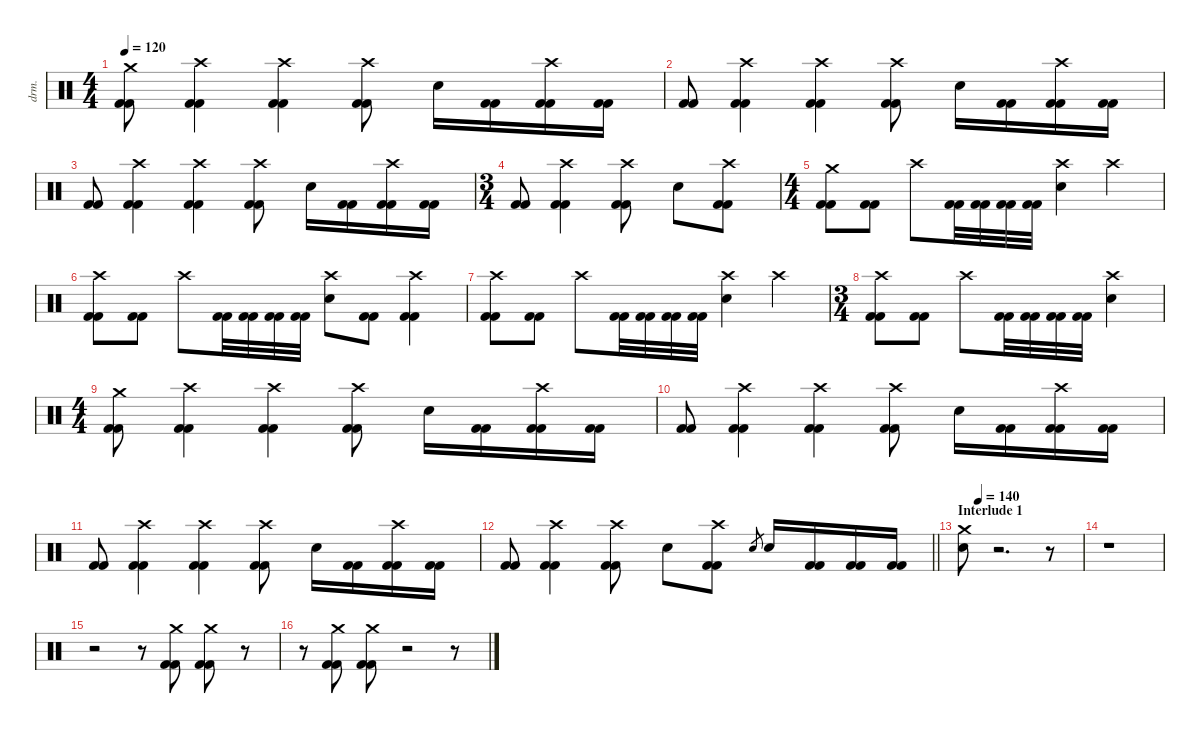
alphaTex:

\defaultSystemsLayout 4
\hideDynamics
\bracketExtendMode nobrackets
\otherSystemsTrackNameOrientation horizontal
\track ("Chris Adler" "drm.") {instrument percussion}
\staff {score}
\articulation defaults
\ts (4 4)
\beaming (8 2 2 2 2)
\tempo 120
\clef neutral
\ks c
("Crash medium (hit)" "Kick (hit) 2" "Kick (hit) 2").8{dy f} ("Crash high (hit)" "Kick (hit) 2" "Kick (hit) 2").4 ("Crash high (hit)" "Kick (hit) 2" "Kick (hit) 2").4 ("Crash high (hit)" "Kick (hit) 2" "Kick (hit) 2").8 "Snare (hit) 2".16 ("Kick (hit) 2" "Kick (hit) 2").16 ("Crash high (hit)" "Kick (hit) 2" "Kick (hit) 2").16 ("Kick (hit) 2" "Kick (hit) 2").16 |
("Kick (hit) 2" "Kick (hit) 2").8 ("Crash high (hit)" "Kick (hit) 2" "Kick (hit) 2").4 ("Crash high (hit)" "Kick (hit) 2" "Kick (hit) 2").4 ("Crash high (hit)" "Kick (hit) 2" "Kick (hit) 2").8 "Snare (hit) 2".16 ("Kick (hit) 2" "Kick (hit) 2").16 ("Crash high (hit)" "Kick (hit) 2" "Kick (hit) 2").16 ("Kick (hit) 2" "Kick (hit) 2").16 |
("Kick (hit) 2" "Kick (hit) 2").8 ("Crash high (hit)" "Kick (hit) 2" "Kick (hit) 2").4 ("Crash high (hit)" "Kick (hit) 2" "Kick (hit) 2").4 ("Crash high (hit)" "Kick (hit) 2" "Kick (hit) 2").8 "Snare (hit) 2".16 ("Kick (hit) 2" "Kick (hit) 2").16 ("Crash high (hit)" "Kick (hit) 2" "Kick (hit) 2").16 ("Kick (hit) 2" "Kick (hit) 2").16 |
\ts (3 4)
\beaming (8 2 2 2)
("Kick (hit) 2" "Kick (hit) 2").8 ("Crash high (hit)" "Kick (hit) 2" "Kick (hit) 2").4 ("Crash high (hit)" "Kick (hit) 2" "Kick (hit) 2").8 "Snare (hit) 2".8 ("Crash high (hit)" "Kick (hit) 2" "Kick (hit) 2").8 |
\ts (4 4)
\beaming (8 2 2 2 2)
("Crash medium (hit)" "Kick (hit) 2" "Kick (hit) 2").8 ("Kick (hit) 2" "Kick (hit) 2").8 "Crash high (hit)".8 ("Kick (hit) 2" "Kick (hit) 2").32 ("Kick (hit) 2" "Kick (hit) 2").32 ("Kick (hit) 2" "Kick (hit) 2").32 ("Kick (hit) 2" "Kick (hit) 2").32 ("Crash high (hit)" "Snare (hit) 2").4 "Crash high (hit)".4 |
("Crash high (hit)" "Kick (hit) 2" "Kick (hit) 2").8 ("Kick (hit) 2" "Kick (hit) 2").8 "Crash high (hit)".8 ("Kick (hit) 2" "Kick (hit) 2").32 ("Kick (hit) 2" "Kick (hit) 2").32 ("Kick (hit) 2" "Kick (hit) 2").32 ("Kick (hit) 2" "Kick (hit) 2").32 ("Crash high (hit)" "Snare (hit) 2").8 ("Kick (hit) 2" "Kick (hit) 2").8 ("Crash high (hit)" "Kick (hit) 2" "Kick (hit) 2").4 |
("Crash high (hit)" "Kick (hit) 2" "Kick (hit) 2").8 ("Kick (hit) 2" "Kick (hit) 2").8 "Crash high (hit)".8 ("Kick (hit) 2" "Kick (hit) 2").32 ("Kick (hit) 2" "Kick (hit) 2").32 ("Kick (hit) 2" "Kick (hit) 2").32 ("Kick (hit) 2" "Kick (hit) 2").32 ("Crash high (hit)" "Snare (hit) 2").4 "Crash high (hit)".4 |
\ts (3 4)
\beaming (8 2 2 2)
("Crash high (hit)" "Kick (hit) 2" "Kick (hit) 2").8 ("Kick (hit) 2" "Kick (hit) 2").8 "Crash high (hit)".8 ("Kick (hit) 2" "Kick (hit) 2").32 ("Kick (hit) 2" "Kick (hit) 2").32 ("Kick (hit) 2" "Kick (hit) 2").32 ("Kick (hit) 2" "Kick (hit) 2").32 ("Crash high (hit)" "Snare (hit) 2").4 |
\ts (4 4)
\beaming (8 2 2 2 2)
("Crash medium (hit)" "Kick (hit) 2" "Kick (hit) 2").8 ("Crash high (hit)" "Kick (hit) 2" "Kick (hit) 2").4 ("Crash high (hit)" "Kick (hit) 2" "Kick (hit) 2").4 ("Crash high (hit)" "Kick (hit) 2" "Kick (hit) 2").8 "Snare (hit) 2".16 ("Kick (hit) 2" "Kick (hit) 2").16 ("Crash high (hit)" "Kick (hit) 2" "Kick (hit) 2").16 ("Kick (hit) 2" "Kick (hit) 2").16 |
("Kick (hit) 2" "Kick (hit) 2").8 ("Crash high (hit)" "Kick (hit) 2" "Kick (hit) 2").4 ("Crash high (hit)" "Kick (hit) 2" "Kick (hit) 2").4 ("Crash high (hit)" "Kick (hit) 2" "Kick (hit) 2").8 "Snare (hit) 2".16 ("Kick (hit) 2" "Kick (hit) 2").16 ("Crash high (hit)" "Kick (hit) 2" "Kick (hit) 2").16 ("Kick (hit) 2" "Kick (hit) 2").16 |
("Kick (hit) 2" "Kick (hit) 2").8 ("Crash high (hit)" "Kick (hit) 2" "Kick (hit) 2").4 ("Crash high (hit)" "Kick (hit) 2" "Kick (hit) 2").4 ("Crash high (hit)" "Kick (hit) 2" "Kick (hit) 2").8 "Snare (hit) 2".16 ("Kick (hit) 2" "Kick (hit) 2").16 ("Crash high (hit)" "Kick (hit) 2" "Kick (hit) 2").16 ("Kick (hit) 2" "Kick (hit) 2").16 |
\barLineRight lightlight
("Kick (hit) 2" "Kick (hit) 2").8 ("Crash high (hit)" "Kick (hit) 2" "Kick (hit) 2").4 ("Crash high (hit)" "Kick (hit) 2" "Kick (hit) 2").8 "Snare (hit) 2".8 ("Crash high (hit)" "Kick (hit) 2" "Kick (hit) 2").8 "Electric Snare (hit)".8{gr dy mf} "Snare (hit) 2".16{dy f} ("Kick (hit) 2" "Kick (hit) 2").16 ("Kick (hit) 2" "Kick (hit) 2").16 ("Kick (hit) 2" "Kick (hit) 2").16 |
\section ("" "Interlude 1")
\tempo (140 0.125)
("Crash medium (hit)" "Snare (hit) 2").8 r.2{d} r.8 |
r.1 |
r.2 r.8 ("Crash medium (hit)" "Kick (hit) 2" "Kick (hit) 2").8 ("Crash medium (hit)" "Kick (hit) 2" "Kick (hit) 2").8 r.8 |
r.8 ("Crash medium (hit)" "Kick (hit) 2" "Kick (hit) 2").8 ("Crash medium (hit)" "Kick (hit) 2" "Kick (hit) 2").8 r.2 r.8
